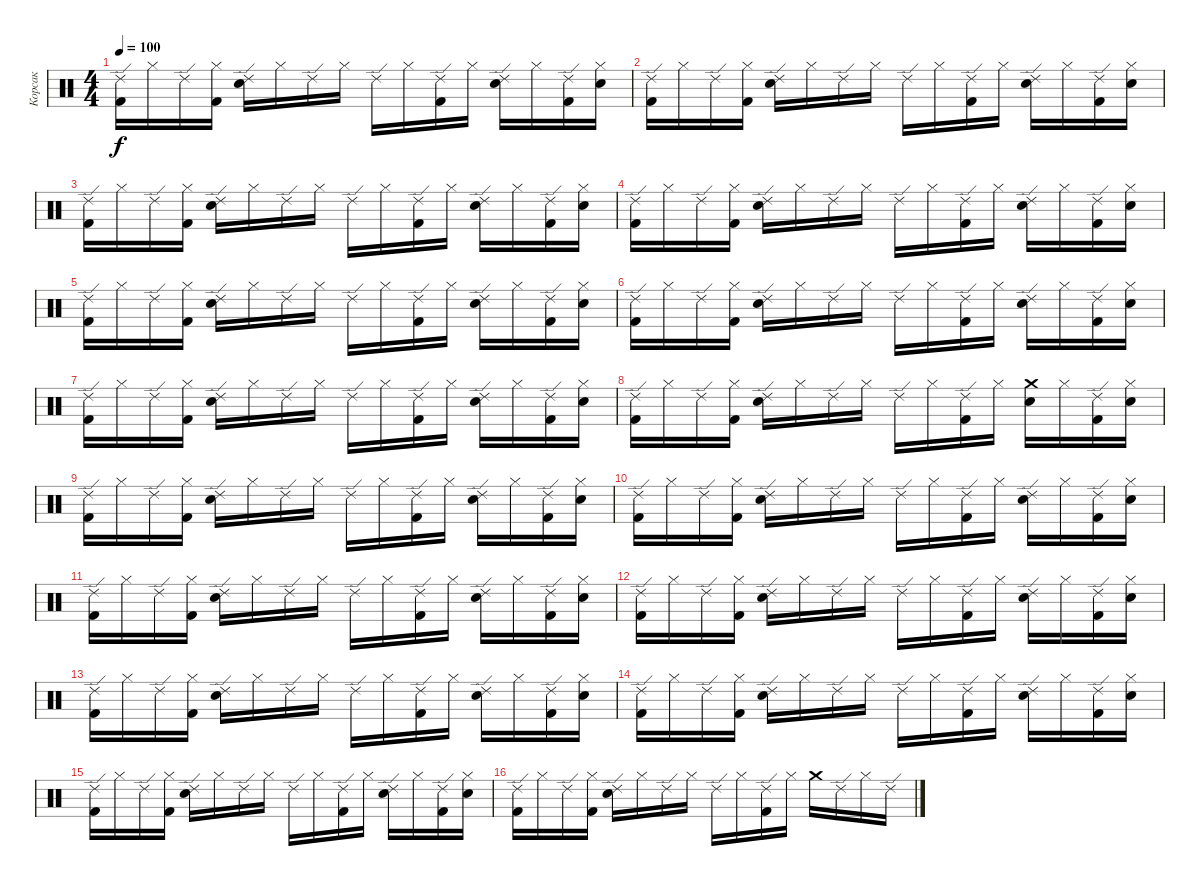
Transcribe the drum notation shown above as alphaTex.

\track ("Корсак" "Корсак") {instrument percussion}
\staff {score}
\articulation defaults
\ts (4 4)
\tempo 100
\clef neutral
\ks c
("Ride (edge) 2" "Kick (hit) 2").16{dy f} "Hi-Hat (closed)".16 "Ride (edge) 2".16 ("Hi-Hat (closed)" "Kick (hit) 2").16 ("Ride (edge) 2" "Electric Snare (hit)").16 "Hi-Hat (closed)".16 "Ride (edge) 2".16 "Hi-Hat (closed)".16 "Ride (edge) 2".16 "Hi-Hat (closed)".16 ("Ride (edge) 2" "Kick (hit) 2").16 "Hi-Hat (closed)".16 ("Ride (edge) 2" "Electric Snare (hit)").16 "Hi-Hat (closed)".16 ("Ride (edge) 2" "Kick (hit) 2").16 ("Hi-Hat (closed)" "Electric Snare (hit)").16 |
("Ride (edge) 2" "Kick (hit) 2").16 "Hi-Hat (closed)".16 "Ride (edge) 2".16 ("Hi-Hat (closed)" "Kick (hit) 2").16 ("Ride (edge) 2" "Electric Snare (hit)").16 "Hi-Hat (closed)".16 "Ride (edge) 2".16 "Hi-Hat (closed)".16 "Ride (edge) 2".16 "Hi-Hat (closed)".16 ("Ride (edge) 2" "Kick (hit) 2").16 "Hi-Hat (closed)".16 ("Ride (edge) 2" "Electric Snare (hit)").16 "Hi-Hat (closed)".16 ("Ride (edge) 2" "Kick (hit) 2").16 ("Hi-Hat (closed)" "Electric Snare (hit)").16 |
("Ride (edge) 2" "Kick (hit) 2").16 "Hi-Hat (closed)".16 "Ride (edge) 2".16 ("Hi-Hat (closed)" "Kick (hit) 2").16 ("Ride (edge) 2" "Electric Snare (hit)").16 "Hi-Hat (closed)".16 "Ride (edge) 2".16 "Hi-Hat (closed)".16 "Ride (edge) 2".16 "Hi-Hat (closed)".16 ("Ride (edge) 2" "Kick (hit) 2").16 "Hi-Hat (closed)".16 ("Ride (edge) 2" "Electric Snare (hit)").16 "Hi-Hat (closed)".16 ("Ride (edge) 2" "Kick (hit) 2").16 ("Hi-Hat (closed)" "Electric Snare (hit)").16 |
("Ride (edge) 2" "Kick (hit) 2").16 "Hi-Hat (closed)".16 "Ride (edge) 2".16 ("Hi-Hat (closed)" "Kick (hit) 2").16 ("Ride (edge) 2" "Electric Snare (hit)").16 "Hi-Hat (closed)".16 "Ride (edge) 2".16 "Hi-Hat (closed)".16 "Ride (edge) 2".16 "Hi-Hat (closed)".16 ("Ride (edge) 2" "Kick (hit) 2").16 "Hi-Hat (closed)".16 ("Ride (edge) 2" "Electric Snare (hit)").16 "Hi-Hat (closed)".16 ("Ride (edge) 2" "Kick (hit) 2").16 ("Hi-Hat (closed)" "Electric Snare (hit)").16 |
("Ride (edge) 2" "Kick (hit) 2").16 "Hi-Hat (closed)".16 "Ride (edge) 2".16 ("Hi-Hat (closed)" "Kick (hit) 2").16 ("Ride (edge) 2" "Electric Snare (hit)").16 "Hi-Hat (closed)".16 "Ride (edge) 2".16 "Hi-Hat (closed)".16 "Ride (edge) 2".16 "Hi-Hat (closed)".16 ("Ride (edge) 2" "Kick (hit) 2").16 "Hi-Hat (closed)".16 ("Ride (edge) 2" "Electric Snare (hit)").16 "Hi-Hat (closed)".16 ("Ride (edge) 2" "Kick (hit) 2").16 ("Hi-Hat (closed)" "Electric Snare (hit)").16 |
("Ride (edge) 2" "Kick (hit) 2").16 "Hi-Hat (closed)".16 "Ride (edge) 2".16 ("Hi-Hat (closed)" "Kick (hit) 2").16 ("Ride (edge) 2" "Electric Snare (hit)").16 "Hi-Hat (closed)".16 "Ride (edge) 2".16 "Hi-Hat (closed)".16 "Ride (edge) 2".16 "Hi-Hat (closed)".16 ("Ride (edge) 2" "Kick (hit) 2").16 "Hi-Hat (closed)".16 ("Ride (edge) 2" "Electric Snare (hit)").16 "Hi-Hat (closed)".16 ("Ride (edge) 2" "Kick (hit) 2").16 ("Hi-Hat (closed)" "Electric Snare (hit)").16 |
("Ride (edge) 2" "Kick (hit) 2").16 "Hi-Hat (closed)".16 "Ride (edge) 2".16 ("Hi-Hat (closed)" "Kick (hit) 2").16 ("Ride (edge) 2" "Electric Snare (hit)").16 "Hi-Hat (closed)".16 "Ride (edge) 2".16 "Hi-Hat (closed)".16 "Ride (edge) 2".16 "Hi-Hat (closed)".16 ("Ride (edge) 2" "Kick (hit) 2").16 "Hi-Hat (closed)".16 ("Ride (edge) 2" "Electric Snare (hit)").16 "Hi-Hat (closed)".16 ("Ride (edge) 2" "Kick (hit) 2").16 ("Hi-Hat (closed)" "Electric Snare (hit)").16 |
("Ride (edge) 2" "Kick (hit) 2").16 "Hi-Hat (closed)".16 "Ride (edge) 2".16 ("Hi-Hat (closed)" "Kick (hit) 2").16 ("Ride (edge) 2" "Electric Snare (hit)").16 "Hi-Hat (closed)".16 "Ride (edge) 2".16 "Hi-Hat (closed)".16 "Ride (edge) 2".16 "Hi-Hat (closed)".16 ("Ride (edge) 2" "Kick (hit) 2").16 "Hi-Hat (closed)".16 ("Crash medium (hit)" "Electric Snare (hit)").16 "Hi-Hat (closed)".16 ("Ride (edge) 2" "Kick (hit) 2").16 ("Hi-Hat (closed)" "Electric Snare (hit)").16 |
("Ride (edge) 2" "Kick (hit) 2").16 "Hi-Hat (closed)".16 "Ride (edge) 2".16 ("Hi-Hat (closed)" "Kick (hit) 2").16 ("Ride (edge) 2" "Electric Snare (hit)").16 "Hi-Hat (closed)".16 "Ride (edge) 2".16 "Hi-Hat (closed)".16 "Ride (edge) 2".16 "Hi-Hat (closed)".16 ("Ride (edge) 2" "Kick (hit) 2").16 "Hi-Hat (closed)".16 ("Ride (edge) 2" "Electric Snare (hit)").16 "Hi-Hat (closed)".16 ("Ride (edge) 2" "Kick (hit) 2").16 ("Hi-Hat (closed)" "Electric Snare (hit)").16 |
("Ride (edge) 2" "Kick (hit) 2").16 "Hi-Hat (closed)".16 "Ride (edge) 2".16 ("Hi-Hat (closed)" "Kick (hit) 2").16 ("Ride (edge) 2" "Electric Snare (hit)").16 "Hi-Hat (closed)".16 "Ride (edge) 2".16 "Hi-Hat (closed)".16 "Ride (edge) 2".16 "Hi-Hat (closed)".16 ("Ride (edge) 2" "Kick (hit) 2").16 "Hi-Hat (closed)".16 ("Ride (edge) 2" "Electric Snare (hit)").16 "Hi-Hat (closed)".16 ("Ride (edge) 2" "Kick (hit) 2").16 ("Hi-Hat (closed)" "Electric Snare (hit)").16 |
("Ride (edge) 2" "Kick (hit) 2").16 "Hi-Hat (closed)".16 "Ride (edge) 2".16 ("Hi-Hat (closed)" "Kick (hit) 2").16 ("Ride (edge) 2" "Electric Snare (hit)").16 "Hi-Hat (closed)".16 "Ride (edge) 2".16 "Hi-Hat (closed)".16 "Ride (edge) 2".16 "Hi-Hat (closed)".16 ("Ride (edge) 2" "Kick (hit) 2").16 "Hi-Hat (closed)".16 ("Ride (edge) 2" "Electric Snare (hit)").16 "Hi-Hat (closed)".16 ("Ride (edge) 2" "Kick (hit) 2").16 ("Hi-Hat (closed)" "Electric Snare (hit)").16 |
("Ride (edge) 2" "Kick (hit) 2").16 "Hi-Hat (closed)".16 "Ride (edge) 2".16 ("Hi-Hat (closed)" "Kick (hit) 2").16 ("Ride (edge) 2" "Electric Snare (hit)").16 "Hi-Hat (closed)".16 "Ride (edge) 2".16 "Hi-Hat (closed)".16 "Ride (edge) 2".16 "Hi-Hat (closed)".16 ("Ride (edge) 2" "Kick (hit) 2").16 "Hi-Hat (closed)".16 ("Ride (edge) 2" "Electric Snare (hit)").16 "Hi-Hat (closed)".16 ("Ride (edge) 2" "Kick (hit) 2").16 ("Hi-Hat (closed)" "Electric Snare (hit)").16 |
("Ride (edge) 2" "Kick (hit) 2").16 "Hi-Hat (closed)".16 "Ride (edge) 2".16 ("Hi-Hat (closed)" "Kick (hit) 2").16 ("Ride (edge) 2" "Electric Snare (hit)").16 "Hi-Hat (closed)".16 "Ride (edge) 2".16 "Hi-Hat (closed)".16 "Ride (edge) 2".16 "Hi-Hat (closed)".16 ("Ride (edge) 2" "Kick (hit) 2").16 "Hi-Hat (closed)".16 ("Ride (edge) 2" "Electric Snare (hit)").16 "Hi-Hat (closed)".16 ("Ride (edge) 2" "Kick (hit) 2").16 ("Hi-Hat (closed)" "Electric Snare (hit)").16 |
("Ride (edge) 2" "Kick (hit) 2").16 "Hi-Hat (closed)".16 "Ride (edge) 2".16 ("Hi-Hat (closed)" "Kick (hit) 2").16 ("Ride (edge) 2" "Electric Snare (hit)").16 "Hi-Hat (closed)".16 "Ride (edge) 2".16 "Hi-Hat (closed)".16 "Ride (edge) 2".16 "Hi-Hat (closed)".16 ("Ride (edge) 2" "Kick (hit) 2").16 "Hi-Hat (closed)".16 ("Ride (edge) 2" "Electric Snare (hit)").16 "Hi-Hat (closed)".16 ("Ride (edge) 2" "Kick (hit) 2").16 ("Hi-Hat (closed)" "Electric Snare (hit)").16 |
("Ride (edge) 2" "Kick (hit) 2").16 "Hi-Hat (closed)".16 "Ride (edge) 2".16 ("Hi-Hat (closed)" "Kick (hit) 2").16 ("Ride (edge) 2" "Electric Snare (hit)").16 "Hi-Hat (closed)".16 "Ride (edge) 2".16 "Hi-Hat (closed)".16 "Ride (edge) 2".16 "Hi-Hat (closed)".16 ("Ride (edge) 2" "Kick (hit) 2").16 "Hi-Hat (closed)".16 ("Ride (edge) 2" "Electric Snare (hit)").16 "Hi-Hat (closed)".16 ("Ride (edge) 2" "Kick (hit) 2").16 ("Hi-Hat (closed)" "Electric Snare (hit)").16 |
("Ride (edge) 2" "Kick (hit) 2").16 "Hi-Hat (closed)".16 "Ride (edge) 2".16 ("Hi-Hat (closed)" "Kick (hit) 2").16 ("Ride (edge) 2" "Electric Snare (hit)").16 "Hi-Hat (closed)".16 "Ride (edge) 2".16 "Hi-Hat (closed)".16 "Ride (edge) 2".16 "Hi-Hat (closed)".16 ("Ride (edge) 2" "Kick (hit) 2").16 "Hi-Hat (closed)".16 "Crash medium (hit)".16 "Ride (edge) 2".16 "Hi-Hat (closed)".16 "Ride (edge) 2".16
